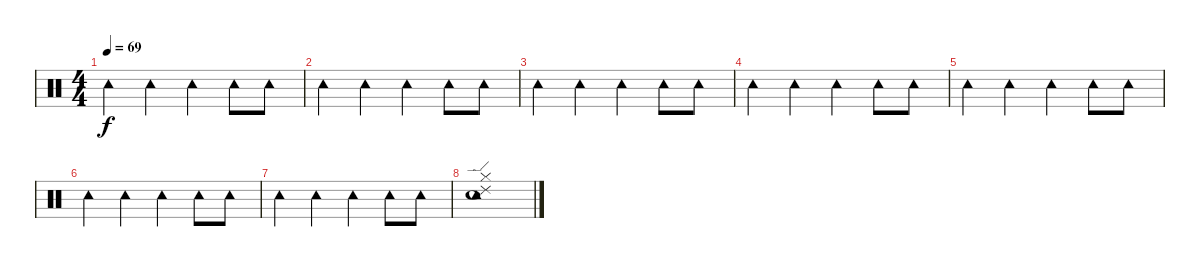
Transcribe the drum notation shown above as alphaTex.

\track "" {instrument percussion}
\staff {score}
\articulation defaults
\ts (4 4)
\tempo 69
\clef neutral
\ks c "Tambourine (hit)".4{dy f} "Tambourine (hit)".4 "Tambourine (hit)".4 "Tambourine (hit)".8 "Tambourine (hit)".8
|
"Tambourine (hit)".4 "Tambourine (hit)".4 "Tambourine (hit)".4 "Tambourine (hit)".8 "Tambourine (hit)".8 |
"Tambourine (hit)".4 "Tambourine (hit)".4 "Tambourine (hit)".4 "Tambourine (hit)".8 "Tambourine (hit)".8 |
"Tambourine (hit)".4 "Tambourine (hit)".4 "Tambourine (hit)".4 "Tambourine (hit)".8 "Tambourine (hit)".8 |
"Tambourine (hit)".4 "Tambourine (hit)".4 "Tambourine (hit)".4 "Tambourine (hit)".8 "Tambourine (hit)".8 |
"Tambourine (hit)".4 "Tambourine (hit)".4 "Tambourine (hit)".4 "Tambourine (hit)".8 "Tambourine (hit)".8 |
"Tambourine (hit)".4 "Tambourine (hit)".4 "Tambourine (hit)".4 "Tambourine (hit)".8 "Tambourine (hit)".8 |
("Tambourine (hit)" "Snare (hit) 2" "Hi-Hat (closed)" "Ride (edge) 2").1
